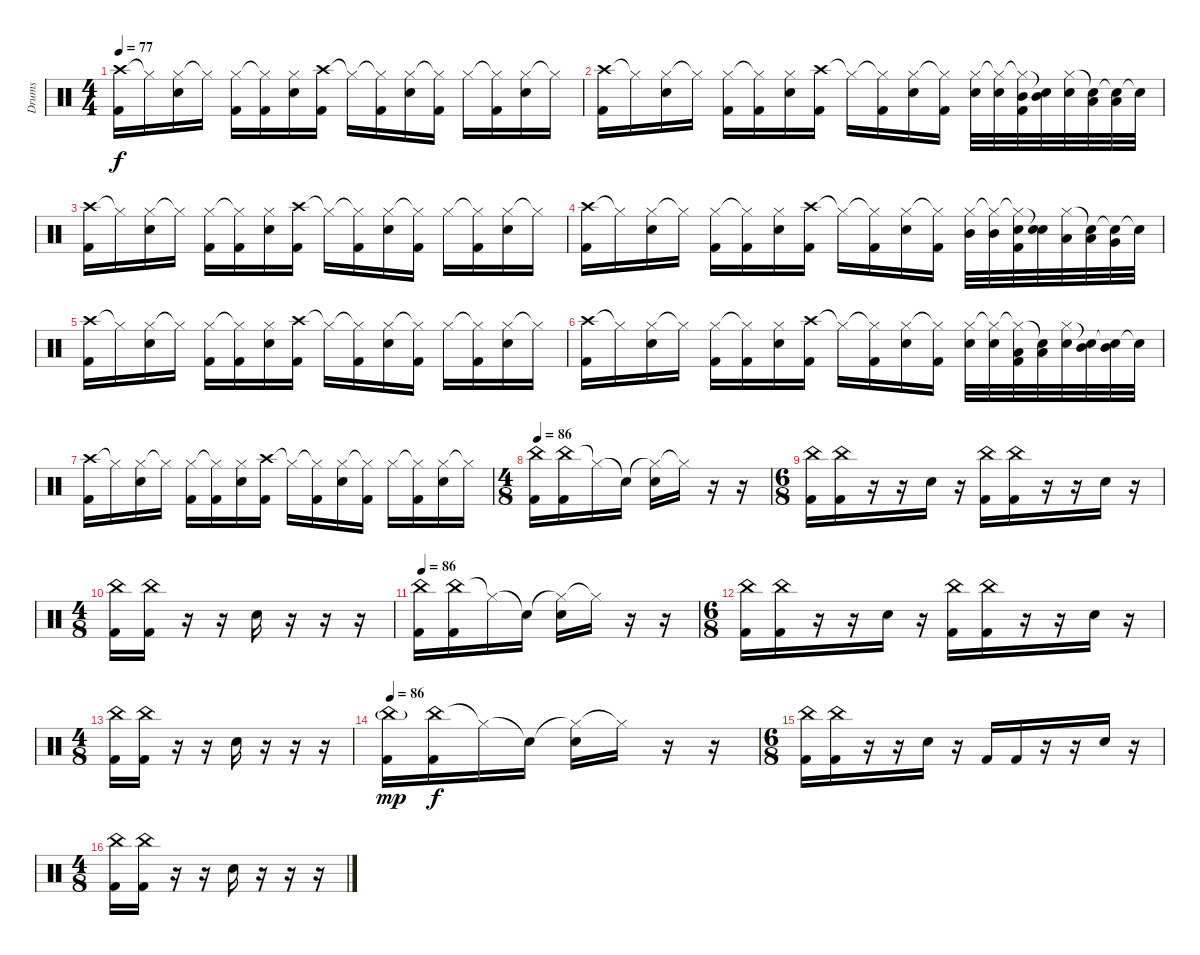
\track ("Drums" "Drums") {instrument percussion}
\staff {score}
\articulation defaults
\ts (4 4)
\tempo 77
\clef neutral
\ks c
("Crash high (hit)" "Kick (hit) 2").16{dy f} "Hi-Hat (closed)"{t}.16 ("Hi-Hat (closed)" "Electric Snare (hit)").16 "Hi-Hat (closed)"{t}.16 ("Hi-Hat (closed)" "Kick (hit) 2").16 ("Hi-Hat (closed)"{t} "Kick (hit) 2").16 ("Hi-Hat (closed)" "Electric Snare (hit)").16 ("Crash high (hit)" "Kick (hit) 2").16 "Hi-Hat (closed)"{t}.16 ("Hi-Hat (closed)"{t} "Kick (hit) 2").16 ("Hi-Hat (closed)" "Electric Snare (hit)").16 ("Hi-Hat (closed)"{t} "Kick (hit) 2").16 "Hi-Hat (closed)".16 ("Hi-Hat (closed)"{t} "Kick (hit) 2").16 ("Hi-Hat (closed)" "Electric Snare (hit)").16 "Hi-Hat (closed)"{t}.16 |
("Crash high (hit)" "Kick (hit) 2").16 "Hi-Hat (closed)"{t}.16 ("Hi-Hat (closed)" "Electric Snare (hit)").16 "Hi-Hat (closed)"{t}.16 ("Hi-Hat (closed)" "Kick (hit) 2").16 ("Hi-Hat (closed)"{t} "Kick (hit) 2").16 ("Hi-Hat (closed)" "Electric Snare (hit)").16 ("Crash high (hit)" "Kick (hit) 2").16 "Hi-Hat (closed)"{t}.16 ("Hi-Hat (closed)"{t} "Kick (hit) 2").16 ("Hi-Hat (closed)" "Electric Snare (hit)").16 ("Hi-Hat (closed)"{t} "Kick (hit) 2").16 ("Hi-Hat (closed)" "Electric Snare (hit)").32 ("Hi-Hat (closed)"{t} "Electric Snare (hit)").32 ("Hi-Hat (closed)"{t} "Mid Tom (hit)" "Kick (hit) 2").32 ("Snare (hit)"{t} "Mid Tom (hit)").32 ("Hi-Hat (closed)" "Electric Snare (hit)").32 ("Snare (hit)"{t} "Low Tom (hit)").32 ("Snare (hit)"{t} "Low Tom (hit)").32 "Snare (hit)"{t}.32 |
("Crash high (hit)" "Kick (hit) 2").16 "Hi-Hat (closed)"{t}.16 ("Hi-Hat (closed)" "Electric Snare (hit)").16 "Hi-Hat (closed)"{t}.16 ("Hi-Hat (closed)" "Kick (hit) 2").16 ("Hi-Hat (closed)"{t} "Kick (hit) 2").16 ("Hi-Hat (closed)" "Electric Snare (hit)").16 ("Crash high (hit)" "Kick (hit) 2").16 "Hi-Hat (closed)"{t}.16 ("Hi-Hat (closed)"{t} "Kick (hit) 2").16 ("Hi-Hat (closed)" "Electric Snare (hit)").16 ("Hi-Hat (closed)"{t} "Kick (hit) 2").16 "Hi-Hat (closed)".16 ("Hi-Hat (closed)"{t} "Kick (hit) 2").16 ("Hi-Hat (closed)" "Electric Snare (hit)").16 "Hi-Hat (closed)"{t}.16 |
("Crash high (hit)" "Kick (hit) 2").16 "Hi-Hat (closed)"{t}.16 ("Hi-Hat (closed)" "Electric Snare (hit)").16 "Hi-Hat (closed)"{t}.16 ("Hi-Hat (closed)" "Kick (hit) 2").16 ("Hi-Hat (closed)"{t} "Kick (hit) 2").16 ("Hi-Hat (closed)" "Electric Snare (hit)").16 ("Crash high (hit)" "Kick (hit) 2").16 "Hi-Hat (closed)"{t}.16 ("Hi-Hat (closed)"{t} "Kick (hit) 2").16 ("Hi-Hat (closed)" "Electric Snare (hit)").16 ("Hi-Hat (closed)"{t} "Kick (hit) 2").16 ("Hi-Hat (closed)" "Mid Tom (hit)").32 ("Hi-Hat (closed)"{t} "Mid Tom (hit)").32 ("Hi-Hat (closed)"{t} "Electric Snare (hit)" "Kick (hit) 2").32 ("Snare (hit)"{t} "Electric Snare (hit)").32 ("Hi-Hat (closed)" "Low Tom (hit)").32 ("Snare (hit)"{t} "Low Tom (hit)").32 ("Snare (hit)"{t} "Very Low Tom (hit)").32 "Snare (hit)"{t}.32 |
("Crash high (hit)" "Kick (hit) 2").16 "Hi-Hat (closed)"{t}.16 ("Hi-Hat (closed)" "Electric Snare (hit)").16 "Hi-Hat (closed)"{t}.16 ("Hi-Hat (closed)" "Kick (hit) 2").16 ("Hi-Hat (closed)"{t} "Kick (hit) 2").16 ("Hi-Hat (closed)" "Electric Snare (hit)").16 ("Crash high (hit)" "Kick (hit) 2").16 "Hi-Hat (closed)"{t}.16 ("Hi-Hat (closed)"{t} "Kick (hit) 2").16 ("Hi-Hat (closed)" "Electric Snare (hit)").16 ("Hi-Hat (closed)"{t} "Kick (hit) 2").16 "Hi-Hat (closed)".16 ("Hi-Hat (closed)"{t} "Kick (hit) 2").16 ("Hi-Hat (closed)" "Electric Snare (hit)").16 "Hi-Hat (closed)"{t}.16 |
("Crash high (hit)" "Kick (hit) 2").16 "Hi-Hat (closed)"{t}.16 ("Hi-Hat (closed)" "Electric Snare (hit)").16 "Hi-Hat (closed)"{t}.16 ("Hi-Hat (closed)" "Kick (hit) 2").16 ("Hi-Hat (closed)"{t} "Kick (hit) 2").16 ("Hi-Hat (closed)" "Electric Snare (hit)").16 ("Crash high (hit)" "Kick (hit) 2").16 "Hi-Hat (closed)"{t}.16 ("Hi-Hat (closed)"{t} "Kick (hit) 2").16 ("Hi-Hat (closed)" "Electric Snare (hit)").16 ("Hi-Hat (closed)"{t} "Kick (hit) 2").16 ("Hi-Hat (closed)" "Electric Snare (hit)").32 ("Hi-Hat (closed)"{t} "Electric Snare (hit)").32 ("Hi-Hat (closed)"{t} "Low Tom (hit)" "Kick (hit) 2").32 ("Snare (hit)"{t} "Low Tom (hit)").32 ("Hi-Hat (closed)" "Electric Snare (hit)").32 ("Snare (hit)"{t} "Mid Tom (hit)").32 ("Snare (hit)"{t} "Mid Tom (hit)").32 "Snare (hit)"{t}.32 |
("Crash high (hit)" "Kick (hit) 2").16 "Hi-Hat (closed)"{t}.16 ("Hi-Hat (closed)" "Electric Snare (hit)").16 "Hi-Hat (closed)"{t}.16 ("Hi-Hat (closed)" "Kick (hit) 2").16 ("Hi-Hat (closed)"{t} "Kick (hit) 2").16 ("Hi-Hat (closed)" "Electric Snare (hit)").16 ("Crash high (hit)" "Kick (hit) 2").16 "Hi-Hat (closed)"{t}.16 ("Hi-Hat (closed)"{t} "Kick (hit) 2").16 ("Hi-Hat (closed)" "Electric Snare (hit)").16 ("Hi-Hat (closed)"{t} "Kick (hit) 2").16 "Hi-Hat (closed)".16 ("Hi-Hat (closed)"{t} "Kick (hit) 2").16 ("Hi-Hat (closed)" "Electric Snare (hit)").16 "Hi-Hat (closed)"{t}.16 |
\ts (4 8)
\tempo 86
("China (hit)" "Kick (hit) 2").16 ("China (hit)" "Kick (hit) 2").16 "Hi-Hat (closed)"{t}.16 "Snare (hit)"{t}.16 ("Hi-Hat (closed)"{t} "Electric Snare (hit)").16 "Hi-Hat (closed)"{t}.16 r.16 r.16 |
\ts (6 8)
("China (hit)" "Kick (hit) 2").16 ("China (hit)" "Kick (hit) 2").16 r.16 r.16 "Electric Snare (hit)".16 r.16 ("China (hit)" "Kick (hit) 2").16 ("China (hit)" "Kick (hit) 2").16 r.16 r.16 "Electric Snare (hit)".16 r.16 |
\ts (4 8)
("China (hit)" "Kick (hit) 2").16 ("China (hit)" "Kick (hit) 2").16 r.16 r.16 "Electric Snare (hit)".16 r.16 r.16 r.16 |
\tempo 86
("China (hit)" "Kick (hit) 2").16 ("China (hit)" "Kick (hit) 2").16 "Hi-Hat (closed)"{t}.16 "Snare (hit)"{t}.16 ("Hi-Hat (closed)"{t} "Electric Snare (hit)").16 "Hi-Hat (closed)"{t}.16 r.16 r.16 |
\ts (6 8)
("China (hit)" "Kick (hit) 2").16 ("China (hit)" "Kick (hit) 2").16 r.16 r.16 "Electric Snare (hit)".16 r.16 ("China (hit)" "Kick (hit) 2").16 ("China (hit)" "Kick (hit) 2").16 r.16 r.16 "Electric Snare (hit)".16 r.16 |
\ts (4 8)
("China (hit)" "Kick (hit) 2").16 ("China (hit)" "Kick (hit) 2").16 r.16 r.16 "Electric Snare (hit)".16 r.16 r.16 r.16 |
\tempo 86
("China (hit)"{g} "Kick (hit) 2").16{dy mp} ("China (hit)" "Kick (hit) 2").16{dy f} "Hi-Hat (closed)"{t}.16 "Snare (hit)"{t}.16 ("Hi-Hat (closed)"{t} "Electric Snare (hit)").16 "Hi-Hat (closed)"{t}.16 r.16 r.16 |
\ts (6 8)
("China (hit)" "Kick (hit) 2").16 ("China (hit)" "Kick (hit) 2").16 r.16 r.16 "Electric Snare (hit)".16 r.16 "Kick (hit) 2".16 "Kick (hit) 2".16 r.16 r.16 "Electric Snare (hit)".16 r.16 |
\ts (4 8)
("China (hit)" "Kick (hit) 2").16 ("China (hit)" "Kick (hit) 2").16 r.16 r.16 "Electric Snare (hit)".16 r.16 r.16 r.16
